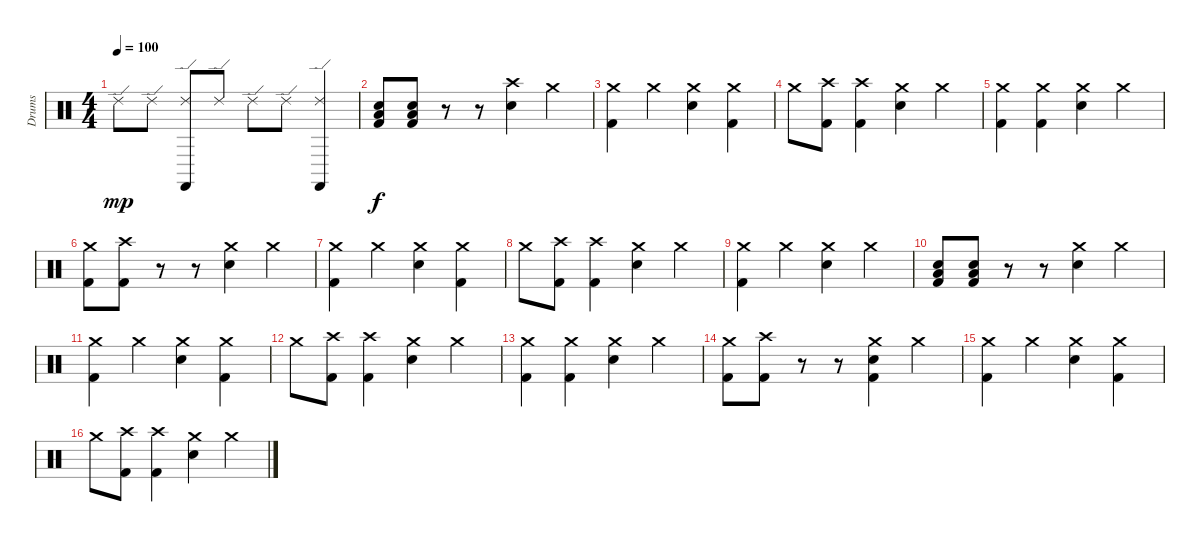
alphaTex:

\track ("Drums" "Drums") {instrument percussion}
\staff {score}
\articulation defaults
\ts (4 4)
\tempo 100
\clef neutral
\ks c "Ride (edge) 2".8{dy mp} "Ride (edge) 2".8
("Ride (edge) 2" "Castanets (hit)").8 "Ride (edge) 2".8 "Ride (edge) 2".8 "Ride (edge) 2".8 ("Ride (edge) 2" "Castanets (hit)").4 |
("Low Tom (hit)" "Snare (hit) 2" "Kick (hit) 2").8{dy f} ("Low Tom (hit)" "Snare (hit) 2" "Kick (hit) 2").8 r.8 r.8 ("Crash high (hit)" "Snare (hit) 2").4 "Crash medium (hit)".4 |
("Crash medium (hit)" "Kick (hit) 2").4 "Crash medium (hit)".4 ("Crash medium (hit)" "Snare (hit) 2").4 ("Crash medium (hit)" "Kick (hit) 2").4 |
"Crash medium (hit)".8 ("Crash high (hit)" "Kick (hit) 2").8 ("Crash high (hit)" "Kick (hit) 2").4 ("Crash medium (hit)" "Snare (hit) 2").4 "Crash medium (hit)".4 |
("Crash medium (hit)" "Kick (hit) 2").4 ("Crash medium (hit)" "Kick (hit) 2").4 ("Crash medium (hit)" "Snare (hit) 2").4 "Crash medium (hit)".4 |
("Crash medium (hit)" "Kick (hit) 2").8 ("Crash high (hit)" "Kick (hit) 2").8 r.8 r.8 ("Crash medium (hit)" "Snare (hit) 2").4 "Crash medium (hit)".4 |
("Crash medium (hit)" "Kick (hit) 2").4 "Crash medium (hit)".4 ("Crash medium (hit)" "Snare (hit) 2").4 ("Crash medium (hit)" "Kick (hit) 2").4 |
"Crash medium (hit)".8 ("Crash high (hit)" "Kick (hit) 2").8 ("Crash high (hit)" "Kick (hit) 2").4 ("Crash medium (hit)" "Snare (hit) 2").4 "Crash medium (hit)".4 |
("Crash medium (hit)" "Kick (hit) 2").4 "Crash medium (hit)".4 ("Crash medium (hit)" "Snare (hit) 2").4 "Crash medium (hit)".4 |
("Low Tom (hit)" "Snare (hit) 2" "Kick (hit) 2").8 ("Low Tom (hit)" "Snare (hit) 2" "Kick (hit) 2").8 r.8 r.8 ("Crash medium (hit)" "Snare (hit) 2").4 "Crash medium (hit)".4 |
("Crash medium (hit)" "Kick (hit) 2").4 "Crash medium (hit)".4 ("Crash medium (hit)" "Snare (hit) 2").4 ("Crash medium (hit)" "Kick (hit) 2").4 |
"Crash medium (hit)".8 ("Crash high (hit)" "Kick (hit) 2").8 ("Crash high (hit)" "Kick (hit) 2").4 ("Crash medium (hit)" "Snare (hit) 2").4 "Crash medium (hit)".4 |
("Crash medium (hit)" "Kick (hit) 2").4 ("Crash medium (hit)" "Kick (hit) 2").4 ("Crash medium (hit)" "Snare (hit) 2").4 "Crash medium (hit)".4 |
("Crash medium (hit)" "Kick (hit) 2").8 ("Crash high (hit)" "Kick (hit) 2").8 r.8 r.8 ("Crash medium (hit)" "Snare (hit) 2" "Kick (hit) 2").4 "Crash medium (hit)".4 |
("Crash medium (hit)" "Kick (hit) 2").4 "Crash medium (hit)".4 ("Crash medium (hit)" "Snare (hit) 2").4 ("Crash medium (hit)" "Kick (hit) 2").4 |
"Crash medium (hit)".8 ("Crash high (hit)" "Kick (hit) 2").8 ("Crash high (hit)" "Kick (hit) 2").4 ("Crash medium (hit)" "Snare (hit) 2").4 "Crash medium (hit)".4
